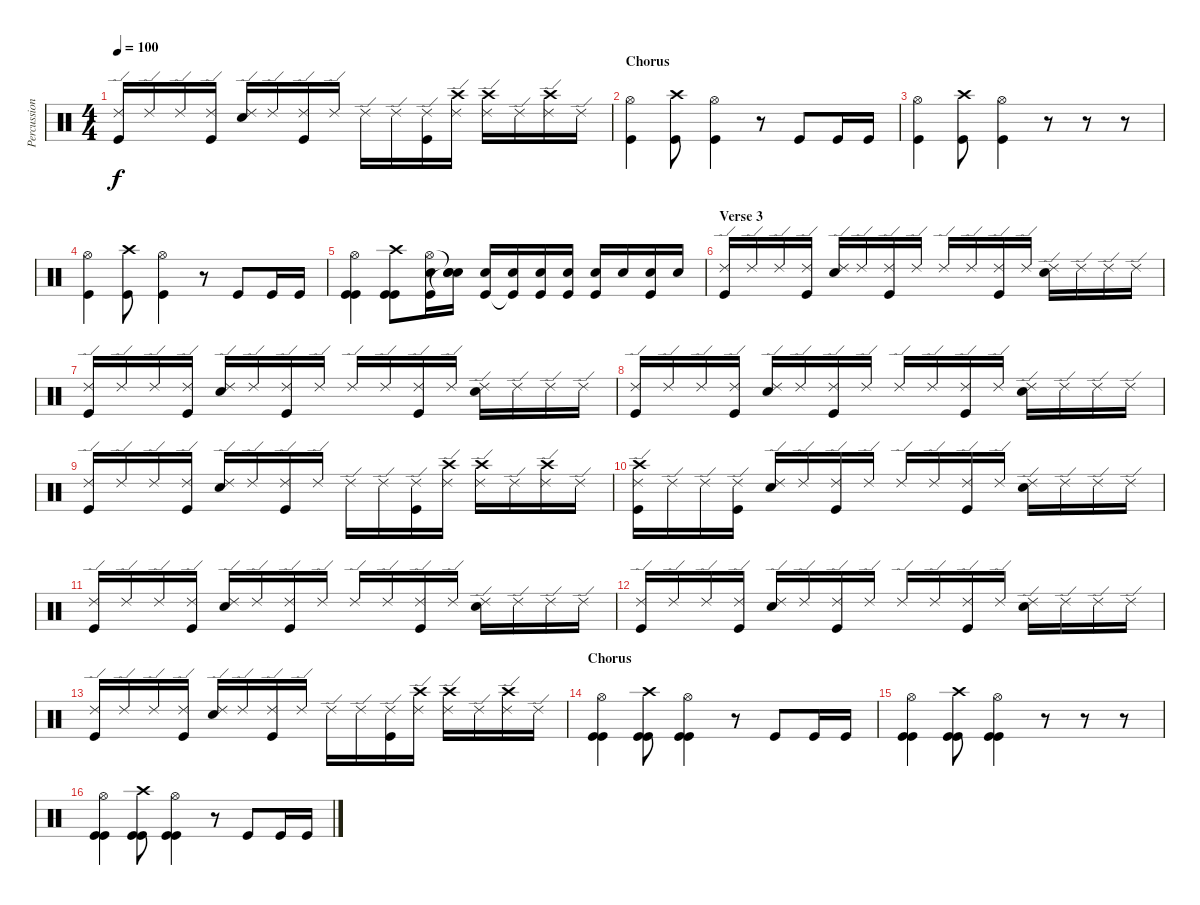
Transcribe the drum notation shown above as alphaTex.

\track ("Percussion" "Percussion") {instrument percussion}
\staff {score}
\articulation defaults
\ts (4 4)
\tempo 100
\clef neutral
\ks c
("Ride (edge) 2" "Kick (hit)").16{dy f} "Ride (edge) 2".16 "Ride (edge) 2".16 ("Ride (edge) 2" "Kick (hit)").16 ("Ride (edge) 2" "Snare (hit) 2").16 "Ride (edge) 2".16 ("Ride (edge) 2" "Kick (hit)").16 "Ride (edge) 2".16 "Ride (edge) 2".16 "Ride (edge) 2".16 ("Ride (edge) 2" "Kick (hit)").16 ("Ride (edge) 2" "Crash high (hit)").16 ("Ride (edge) 2" "Crash high (hit)").16 "Ride (edge) 2".16 ("Ride (edge) 2" "Crash high (hit)").16 "Ride (edge) 2".16 |
\section ("" "Chorus")
("Hi-Hat (open)" "Kick (hit)").4 ("Crash high (hit)" "Kick (hit)").8 ("Hi-Hat (open)" "Kick (hit)").4 r.8 "Kick (hit)".8 "Kick (hit)".16 "Kick (hit)".16 |
("Hi-Hat (open)" "Kick (hit)").4 ("Crash high (hit)" "Kick (hit)").8 ("Hi-Hat (open)" "Kick (hit)").4 r.8 r.8 r.8 |
("Hi-Hat (open)" "Kick (hit)").4 ("Crash high (hit)" "Kick (hit)").8 ("Hi-Hat (open)" "Kick (hit)").4 r.8 "Kick (hit)".8 "Kick (hit)".16 "Kick (hit)".16 |
("Hi-Hat (open)" "Kick (hit)" "Kick (hit)").4 ("Crash high (hit)" "Kick (hit)" "Kick (hit)").8 ("Hi-Hat (open)" "Snare (hit) 2" "Kick (hit)").16 ("Snare (hit)"{t} "Snare (hit) 2" "Snare (hit)"{t}).16 ("Snare (hit) 2" "Kick (hit)").16 ("Snare (hit) 2" "Kick (hit)"{t}).16 ("Snare (hit) 2" "Kick (hit)").16 ("Snare (hit) 2" "Kick (hit)").16 ("Snare (hit) 2" "Kick (hit)").16 "Snare (hit) 2".16 ("Snare (hit) 2" "Kick (hit)").16 "Snare (hit) 2".16 |
\section ("" "Verse 3")
("Ride (edge) 2" "Kick (hit)").16 "Ride (edge) 2".16 "Ride (edge) 2".16 ("Ride (edge) 2" "Kick (hit)").16 ("Ride (edge) 2" "Snare (hit) 2").16 "Ride (edge) 2".16 ("Ride (edge) 2" "Kick (hit)").16 "Ride (edge) 2".16 "Ride (edge) 2".16 "Ride (edge) 2".16 ("Ride (edge) 2" "Kick (hit)").16 "Ride (edge) 2".16 ("Ride (edge) 2" "Snare (hit) 2").16 "Ride (edge) 2".16 "Ride (edge) 2".16 "Ride (edge) 2".16 |
("Ride (edge) 2" "Kick (hit)").16 "Ride (edge) 2".16 "Ride (edge) 2".16 ("Ride (edge) 2" "Kick (hit)").16 ("Ride (edge) 2" "Snare (hit) 2").16 "Ride (edge) 2".16 ("Ride (edge) 2" "Kick (hit)").16 "Ride (edge) 2".16 "Ride (edge) 2".16 "Ride (edge) 2".16 ("Ride (edge) 2" "Kick (hit)").16 "Ride (edge) 2".16 ("Ride (edge) 2" "Snare (hit) 2").16 "Ride (edge) 2".16 "Ride (edge) 2".16 "Ride (edge) 2".16 |
("Ride (edge) 2" "Kick (hit)").16 "Ride (edge) 2".16 "Ride (edge) 2".16 ("Ride (edge) 2" "Kick (hit)").16 ("Ride (edge) 2" "Snare (hit) 2").16 "Ride (edge) 2".16 ("Ride (edge) 2" "Kick (hit)").16 "Ride (edge) 2".16 "Ride (edge) 2".16 "Ride (edge) 2".16 ("Ride (edge) 2" "Kick (hit)").16 "Ride (edge) 2".16 ("Ride (edge) 2" "Snare (hit) 2").16 "Ride (edge) 2".16 "Ride (edge) 2".16 "Ride (edge) 2".16 |
("Ride (edge) 2" "Kick (hit)").16 "Ride (edge) 2".16 "Ride (edge) 2".16 ("Ride (edge) 2" "Kick (hit)").16 ("Ride (edge) 2" "Snare (hit) 2").16 "Ride (edge) 2".16 ("Ride (edge) 2" "Kick (hit)").16 "Ride (edge) 2".16 "Ride (edge) 2".16 "Ride (edge) 2".16 ("Ride (edge) 2" "Kick (hit)").16 ("Ride (edge) 2" "Crash high (hit)").16 ("Ride (edge) 2" "Crash high (hit)").16 "Ride (edge) 2".16 ("Ride (edge) 2" "Crash high (hit)").16 "Ride (edge) 2".16 |
("Ride (edge) 2" "Crash high (hit)" "Kick (hit)").16 "Ride (edge) 2".16 "Ride (edge) 2".16 ("Ride (edge) 2" "Kick (hit)").16 ("Ride (edge) 2" "Snare (hit) 2").16 "Ride (edge) 2".16 ("Ride (edge) 2" "Kick (hit)").16 "Ride (edge) 2".16 "Ride (edge) 2".16 "Ride (edge) 2".16 ("Ride (edge) 2" "Kick (hit)").16 "Ride (edge) 2".16 ("Ride (edge) 2" "Snare (hit) 2").16 "Ride (edge) 2".16 "Ride (edge) 2".16 "Ride (edge) 2".16 |
("Ride (edge) 2" "Kick (hit)").16 "Ride (edge) 2".16 "Ride (edge) 2".16 ("Ride (edge) 2" "Kick (hit)").16 ("Ride (edge) 2" "Snare (hit) 2").16 "Ride (edge) 2".16 ("Ride (edge) 2" "Kick (hit)").16 "Ride (edge) 2".16 "Ride (edge) 2".16 "Ride (edge) 2".16 ("Ride (edge) 2" "Kick (hit)").16 "Ride (edge) 2".16 ("Ride (edge) 2" "Snare (hit) 2").16 "Ride (edge) 2".16 "Ride (edge) 2".16 "Ride (edge) 2".16 |
("Ride (edge) 2" "Kick (hit)").16 "Ride (edge) 2".16 "Ride (edge) 2".16 ("Ride (edge) 2" "Kick (hit)").16 ("Ride (edge) 2" "Snare (hit) 2").16 "Ride (edge) 2".16 ("Ride (edge) 2" "Kick (hit)").16 "Ride (edge) 2".16 "Ride (edge) 2".16 "Ride (edge) 2".16 ("Ride (edge) 2" "Kick (hit)").16 "Ride (edge) 2".16 ("Ride (edge) 2" "Snare (hit) 2").16 "Ride (edge) 2".16 "Ride (edge) 2".16 "Ride (edge) 2".16 |
("Ride (edge) 2" "Kick (hit)").16 "Ride (edge) 2".16 "Ride (edge) 2".16 ("Ride (edge) 2" "Kick (hit)").16 ("Ride (edge) 2" "Snare (hit) 2").16 "Ride (edge) 2".16 ("Ride (edge) 2" "Kick (hit)").16 "Ride (edge) 2".16 "Ride (edge) 2".16 "Ride (edge) 2".16 ("Ride (edge) 2" "Kick (hit)").16 ("Ride (edge) 2" "Crash high (hit)").16 ("Ride (edge) 2" "Crash high (hit)").16 "Ride (edge) 2".16 ("Ride (edge) 2" "Crash high (hit)").16 "Ride (edge) 2".16 |
\section ("" "Chorus")
("Hi-Hat (open)" "Kick (hit)" "Kick (hit)").4 ("Crash high (hit)" "Kick (hit)" "Kick (hit)").8 ("Hi-Hat (open)" "Kick (hit)" "Kick (hit)").4 r.8 "Kick (hit)".8 "Kick (hit)".16 "Kick (hit)".16 |
("Hi-Hat (open)" "Kick (hit)" "Kick (hit)").4 ("Crash high (hit)" "Kick (hit)" "Kick (hit)").8 ("Hi-Hat (open)" "Kick (hit)" "Kick (hit)").4 r.8 r.8 r.8 |
("Hi-Hat (open)" "Kick (hit)" "Kick (hit)").4 ("Crash high (hit)" "Kick (hit)" "Kick (hit)").8 ("Hi-Hat (open)" "Kick (hit)" "Kick (hit)").4 r.8 "Kick (hit)".8 "Kick (hit)".16 "Kick (hit)".16
